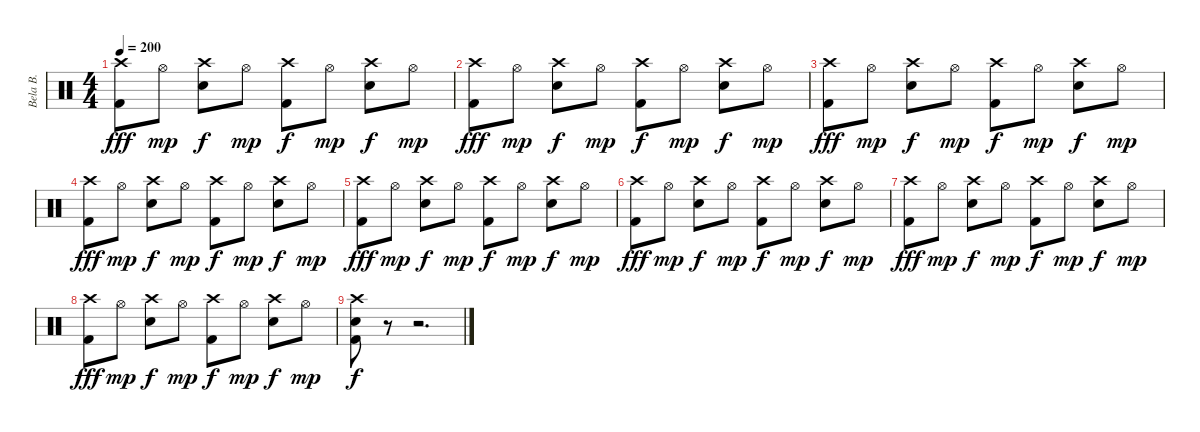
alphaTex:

\track ("Bela B. " "Bela B. ") {instrument percussion}
\staff {score}
\articulation defaults
\ts (4 4)
\tempo 200
\clef neutral
\ks c
("Crash high (hit)" "Kick (hit) 2").8{dy fff} "Hi-Hat (open)".8{dy mp} ("Crash high (hit)" "Snare (hit) 2").8{dy f} "Hi-Hat (open)".8{dy mp} ("Crash high (hit)" "Kick (hit) 2").8{dy f} "Hi-Hat (open)".8{dy mp} ("Crash high (hit)" "Snare (hit) 2").8{dy f} "Hi-Hat (open)".8{dy mp} |
("Crash high (hit)" "Kick (hit) 2").8{dy fff} "Hi-Hat (open)".8{dy mp} ("Crash high (hit)" "Snare (hit) 2").8{dy f} "Hi-Hat (open)".8{dy mp} ("Crash high (hit)" "Kick (hit) 2").8{dy f} "Hi-Hat (open)".8{dy mp} ("Crash high (hit)" "Snare (hit) 2").8{dy f} "Hi-Hat (open)".8{dy mp} |
("Crash high (hit)" "Kick (hit) 2").8{dy fff} "Hi-Hat (open)".8{dy mp} ("Crash high (hit)" "Snare (hit) 2").8{dy f} "Hi-Hat (open)".8{dy mp} ("Crash high (hit)" "Kick (hit) 2").8{dy f} "Hi-Hat (open)".8{dy mp} ("Crash high (hit)" "Snare (hit) 2").8{dy f} "Hi-Hat (open)".8{dy mp} |
("Crash high (hit)" "Kick (hit) 2").8{dy fff} "Hi-Hat (open)".8{dy mp} ("Crash high (hit)" "Snare (hit) 2").8{dy f} "Hi-Hat (open)".8{dy mp} ("Crash high (hit)" "Kick (hit) 2").8{dy f} "Hi-Hat (open)".8{dy mp} ("Crash high (hit)" "Snare (hit) 2").8{dy f} "Hi-Hat (open)".8{dy mp} |
("Crash high (hit)" "Kick (hit) 2").8{dy fff} "Hi-Hat (open)".8{dy mp} ("Crash high (hit)" "Snare (hit) 2").8{dy f} "Hi-Hat (open)".8{dy mp} ("Crash high (hit)" "Kick (hit) 2").8{dy f} "Hi-Hat (open)".8{dy mp} ("Crash high (hit)" "Snare (hit) 2").8{dy f} "Hi-Hat (open)".8{dy mp} |
("Crash high (hit)" "Kick (hit) 2").8{dy fff} "Hi-Hat (open)".8{dy mp} ("Crash high (hit)" "Snare (hit) 2").8{dy f} "Hi-Hat (open)".8{dy mp} ("Crash high (hit)" "Kick (hit) 2").8{dy f} "Hi-Hat (open)".8{dy mp} ("Crash high (hit)" "Snare (hit) 2").8{dy f} "Hi-Hat (open)".8{dy mp} |
("Crash high (hit)" "Kick (hit) 2").8{dy fff} "Hi-Hat (open)".8{dy mp} ("Crash high (hit)" "Snare (hit) 2").8{dy f} "Hi-Hat (open)".8{dy mp} ("Crash high (hit)" "Kick (hit) 2").8{dy f} "Hi-Hat (open)".8{dy mp} ("Crash high (hit)" "Snare (hit) 2").8{dy f} "Hi-Hat (open)".8{dy mp} |
("Crash high (hit)" "Kick (hit) 2").8{dy fff} "Hi-Hat (open)".8{dy mp} ("Crash high (hit)" "Snare (hit) 2").8{dy f} "Hi-Hat (open)".8{dy mp} ("Crash high (hit)" "Kick (hit) 2").8{dy f} "Hi-Hat (open)".8{dy mp} ("Crash high (hit)" "Snare (hit) 2").8{dy f} "Hi-Hat (open)".8{dy mp} |
("Crash high (hit)" "Snare (hit) 2" "Kick (hit) 2").8{dy f} r.8 r.2{d}
